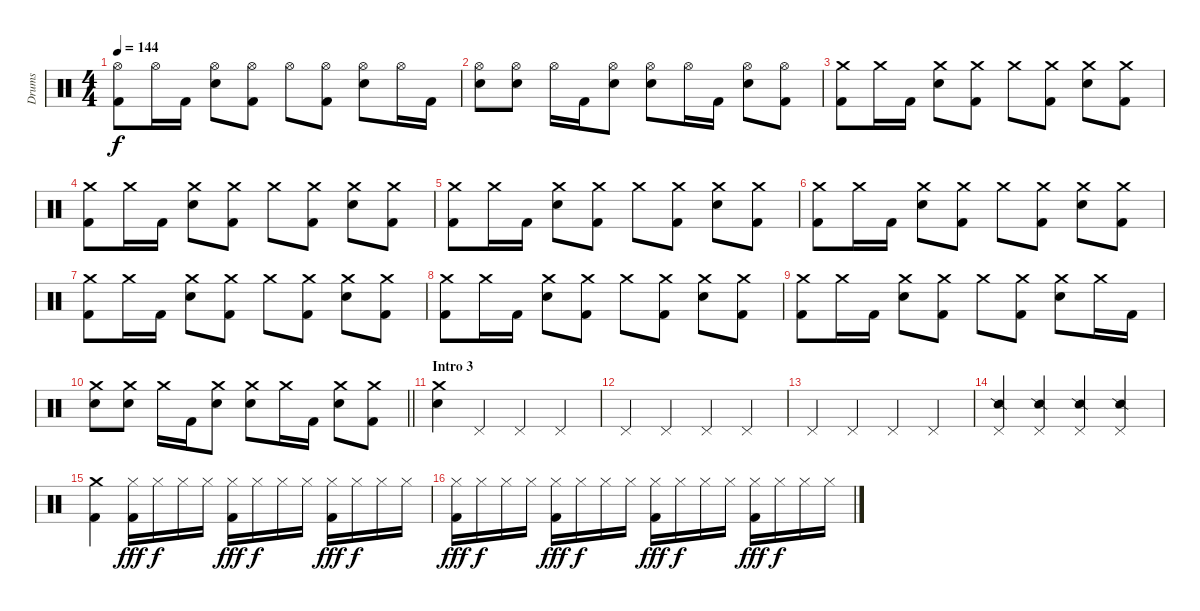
\track ("Drums" "Drums") {instrument percussion}
\staff {score}
\articulation defaults
\ts (4 4)
\tempo 144
\clef neutral
\ks c
("Hi-Hat (open)" "Kick (hit) 2").8{dy f} "Hi-Hat (open)".16 "Kick (hit) 2".16 ("Hi-Hat (open)" "Electric Snare (hit)").8 ("Hi-Hat (open)" "Kick (hit) 2").8 "Hi-Hat (open)".8 ("Hi-Hat (open)" "Kick (hit) 2").8 ("Hi-Hat (open)" "Electric Snare (hit)").8 "Hi-Hat (open)".16 "Kick (hit) 2".16 |
("Hi-Hat (open)" "Electric Snare (hit)").8 ("Hi-Hat (open)" "Electric Snare (hit)").8 "Hi-Hat (open)".16 "Kick (hit) 2".16 ("Hi-Hat (open)" "Electric Snare (hit)").8 ("Hi-Hat (open)" "Electric Snare (hit)").8 "Hi-Hat (open)".16 "Kick (hit) 2".16 ("Hi-Hat (open)" "Electric Snare (hit)").8 ("Hi-Hat (open)" "Kick (hit) 2").8 |
("Crash medium (hit)" "Kick (hit) 2").8 "Crash medium (hit)".16 "Kick (hit) 2".16 ("Crash medium (hit)" "Electric Snare (hit)").8 ("Crash medium (hit)" "Kick (hit) 2").8 "Crash medium (hit)".8 ("Crash medium (hit)" "Kick (hit) 2").8 ("Crash medium (hit)" "Electric Snare (hit)").8 ("Crash medium (hit)" "Kick (hit) 2").8 |
("Crash medium (hit)" "Kick (hit) 2").8 "Crash medium (hit)".16 "Kick (hit) 2".16 ("Crash medium (hit)" "Electric Snare (hit)").8 ("Crash medium (hit)" "Kick (hit) 2").8 "Crash medium (hit)".8 ("Crash medium (hit)" "Kick (hit) 2").8 ("Crash medium (hit)" "Electric Snare (hit)").8 ("Crash medium (hit)" "Kick (hit) 2").8 |
("Crash medium (hit)" "Kick (hit) 2").8 "Crash medium (hit)".16 "Kick (hit) 2".16 ("Crash medium (hit)" "Electric Snare (hit)").8 ("Crash medium (hit)" "Kick (hit) 2").8 "Crash medium (hit)".8 ("Crash medium (hit)" "Kick (hit) 2").8 ("Crash medium (hit)" "Electric Snare (hit)").8 ("Crash medium (hit)" "Kick (hit) 2").8 |
("Crash medium (hit)" "Kick (hit) 2").8 "Crash medium (hit)".16 "Kick (hit) 2".16 ("Crash medium (hit)" "Electric Snare (hit)").8 ("Crash medium (hit)" "Kick (hit) 2").8 "Crash medium (hit)".8 ("Crash medium (hit)" "Kick (hit) 2").8 ("Crash medium (hit)" "Electric Snare (hit)").8 ("Crash medium (hit)" "Kick (hit) 2").8 |
("Crash medium (hit)" "Kick (hit) 2").8 "Crash medium (hit)".16 "Kick (hit) 2".16 ("Crash medium (hit)" "Electric Snare (hit)").8 ("Crash medium (hit)" "Kick (hit) 2").8 "Crash medium (hit)".8 ("Crash medium (hit)" "Kick (hit) 2").8 ("Crash medium (hit)" "Electric Snare (hit)").8 ("Crash medium (hit)" "Kick (hit) 2").8 |
("Crash medium (hit)" "Kick (hit) 2").8 "Crash medium (hit)".16 "Kick (hit) 2".16 ("Crash medium (hit)" "Electric Snare (hit)").8 ("Crash medium (hit)" "Kick (hit) 2").8 "Crash medium (hit)".8 ("Crash medium (hit)" "Kick (hit) 2").8 ("Crash medium (hit)" "Electric Snare (hit)").8 ("Crash medium (hit)" "Kick (hit) 2").8 |
("Crash medium (hit)" "Kick (hit) 2").8 "Crash medium (hit)".16 "Kick (hit) 2".16 ("Crash medium (hit)" "Electric Snare (hit)").8 ("Crash medium (hit)" "Kick (hit) 2").8 "Crash medium (hit)".8 ("Crash medium (hit)" "Kick (hit) 2").8 ("Crash medium (hit)" "Electric Snare (hit)").8 "Crash medium (hit)".16 "Kick (hit) 2".16 |
\barLineRight lightlight
("Crash medium (hit)" "Electric Snare (hit)").8 ("Crash medium (hit)" "Electric Snare (hit)").8 "Crash medium (hit)".16 "Kick (hit) 2".16 ("Crash medium (hit)" "Electric Snare (hit)").8 ("Crash medium (hit)" "Electric Snare (hit)").8 "Crash medium (hit)".16 "Kick (hit) 2".16 ("Crash medium (hit)" "Electric Snare (hit)").8 ("Crash medium (hit)" "Kick (hit) 2").8 |
\section ("" "Intro 3")
("Crash medium (hit)" "Electric Snare (hit)").4 "Pedal Hi-Hat (hit)".4 "Pedal Hi-Hat (hit)".4 "Pedal Hi-Hat (hit)".4 |
"Pedal Hi-Hat (hit)".4 "Pedal Hi-Hat (hit)".4 "Pedal Hi-Hat (hit)".4 "Pedal Hi-Hat (hit)".4 |
"Pedal Hi-Hat (hit)".4 "Pedal Hi-Hat (hit)".4 "Pedal Hi-Hat (hit)".4 "Pedal Hi-Hat (hit)".4 |
("Pedal Hi-Hat (hit)" "Snare (side stick) 2").4 ("Pedal Hi-Hat (hit)" "Snare (side stick) 2").4 ("Pedal Hi-Hat (hit)" "Snare (side stick) 2").4 ("Pedal Hi-Hat (hit)" "Snare (side stick) 2").4 |
("Crash medium (hit)" "Kick (hit) 2").4 ("Hi-Hat (closed)" "Kick (hit) 2").16{dy fff} "Hi-Hat (closed)".16{dy f} "Hi-Hat (closed)".16 "Hi-Hat (closed)".16 ("Hi-Hat (closed)" "Kick (hit) 2").16{dy fff} "Hi-Hat (closed)".16{dy f} "Hi-Hat (closed)".16 "Hi-Hat (closed)".16 ("Hi-Hat (closed)" "Kick (hit) 2").16{dy fff} "Hi-Hat (closed)".16{dy f} "Hi-Hat (closed)".16 "Hi-Hat (closed)".16 |
("Hi-Hat (closed)" "Kick (hit) 2").16{dy fff} "Hi-Hat (closed)".16{dy f} "Hi-Hat (closed)".16 "Hi-Hat (closed)".16 ("Hi-Hat (closed)" "Kick (hit) 2").16{dy fff} "Hi-Hat (closed)".16{dy f} "Hi-Hat (closed)".16 "Hi-Hat (closed)".16 ("Hi-Hat (closed)" "Kick (hit) 2").16{dy fff} "Hi-Hat (closed)".16{dy f} "Hi-Hat (closed)".16 "Hi-Hat (closed)".16 ("Hi-Hat (closed)" "Kick (hit) 2").16{dy fff} "Hi-Hat (closed)".16{dy f} "Hi-Hat (closed)".16 "Hi-Hat (closed)".16
